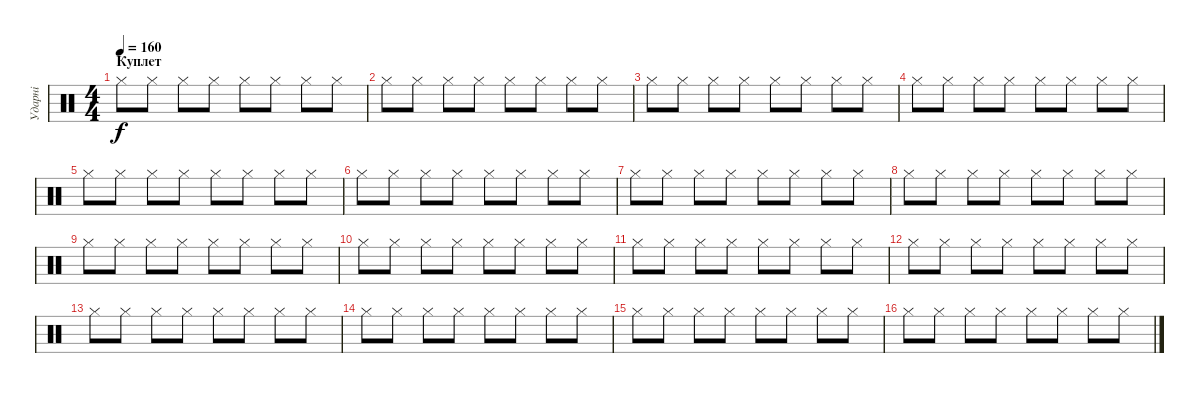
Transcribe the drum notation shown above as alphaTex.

\track ("Ударні" "Ударні") {instrument percussion}
\staff {score}
\articulation defaults
\ts (4 4)
\section ("" "Куплет")
\tempo 160
\clef neutral
\ks c "Hi-Hat (closed)".8{dy f} "Hi-Hat (closed)".8 "Hi-Hat (closed)".8 "Hi-Hat (closed)".8 "Hi-Hat (closed)".8 "Hi-Hat (closed)".8 "Hi-Hat (closed)".8 "Hi-Hat (closed)".8
|
"Hi-Hat (closed)".8 "Hi-Hat (closed)".8 "Hi-Hat (closed)".8 "Hi-Hat (closed)".8 "Hi-Hat (closed)".8 "Hi-Hat (closed)".8 "Hi-Hat (closed)".8 "Hi-Hat (closed)".8 |
"Hi-Hat (closed)".8 "Hi-Hat (closed)".8 "Hi-Hat (closed)".8 "Hi-Hat (closed)".8 "Hi-Hat (closed)".8 "Hi-Hat (closed)".8 "Hi-Hat (closed)".8 "Hi-Hat (closed)".8 |
"Hi-Hat (closed)".8 "Hi-Hat (closed)".8 "Hi-Hat (closed)".8 "Hi-Hat (closed)".8 "Hi-Hat (closed)".8 "Hi-Hat (closed)".8 "Hi-Hat (closed)".8 "Hi-Hat (closed)".8 |
"Hi-Hat (closed)".8 "Hi-Hat (closed)".8 "Hi-Hat (closed)".8 "Hi-Hat (closed)".8 "Hi-Hat (closed)".8 "Hi-Hat (closed)".8 "Hi-Hat (closed)".8 "Hi-Hat (closed)".8 |
"Hi-Hat (closed)".8 "Hi-Hat (closed)".8 "Hi-Hat (closed)".8 "Hi-Hat (closed)".8 "Hi-Hat (closed)".8 "Hi-Hat (closed)".8 "Hi-Hat (closed)".8 "Hi-Hat (closed)".8 |
"Hi-Hat (closed)".8 "Hi-Hat (closed)".8 "Hi-Hat (closed)".8 "Hi-Hat (closed)".8 "Hi-Hat (closed)".8 "Hi-Hat (closed)".8 "Hi-Hat (closed)".8 "Hi-Hat (closed)".8 |
"Hi-Hat (closed)".8 "Hi-Hat (closed)".8 "Hi-Hat (closed)".8 "Hi-Hat (closed)".8 "Hi-Hat (closed)".8 "Hi-Hat (closed)".8 "Hi-Hat (closed)".8 "Hi-Hat (closed)".8 |
"Hi-Hat (closed)".8 "Hi-Hat (closed)".8 "Hi-Hat (closed)".8 "Hi-Hat (closed)".8 "Hi-Hat (closed)".8 "Hi-Hat (closed)".8 "Hi-Hat (closed)".8 "Hi-Hat (closed)".8 |
"Hi-Hat (closed)".8 "Hi-Hat (closed)".8 "Hi-Hat (closed)".8 "Hi-Hat (closed)".8 "Hi-Hat (closed)".8 "Hi-Hat (closed)".8 "Hi-Hat (closed)".8 "Hi-Hat (closed)".8 |
"Hi-Hat (closed)".8 "Hi-Hat (closed)".8 "Hi-Hat (closed)".8 "Hi-Hat (closed)".8 "Hi-Hat (closed)".8 "Hi-Hat (closed)".8 "Hi-Hat (closed)".8 "Hi-Hat (closed)".8 |
"Hi-Hat (closed)".8 "Hi-Hat (closed)".8 "Hi-Hat (closed)".8 "Hi-Hat (closed)".8 "Hi-Hat (closed)".8 "Hi-Hat (closed)".8 "Hi-Hat (closed)".8 "Hi-Hat (closed)".8 |
"Hi-Hat (closed)".8 "Hi-Hat (closed)".8 "Hi-Hat (closed)".8 "Hi-Hat (closed)".8 "Hi-Hat (closed)".8 "Hi-Hat (closed)".8 "Hi-Hat (closed)".8 "Hi-Hat (closed)".8 |
"Hi-Hat (closed)".8 "Hi-Hat (closed)".8 "Hi-Hat (closed)".8 "Hi-Hat (closed)".8 "Hi-Hat (closed)".8 "Hi-Hat (closed)".8 "Hi-Hat (closed)".8 "Hi-Hat (closed)".8 |
"Hi-Hat (closed)".8 "Hi-Hat (closed)".8 "Hi-Hat (closed)".8 "Hi-Hat (closed)".8 "Hi-Hat (closed)".8 "Hi-Hat (closed)".8 "Hi-Hat (closed)".8 "Hi-Hat (closed)".8 |
"Hi-Hat (closed)".8 "Hi-Hat (closed)".8 "Hi-Hat (closed)".8 "Hi-Hat (closed)".8 "Hi-Hat (closed)".8 "Hi-Hat (closed)".8 "Hi-Hat (closed)".8 "Hi-Hat (closed)".8
